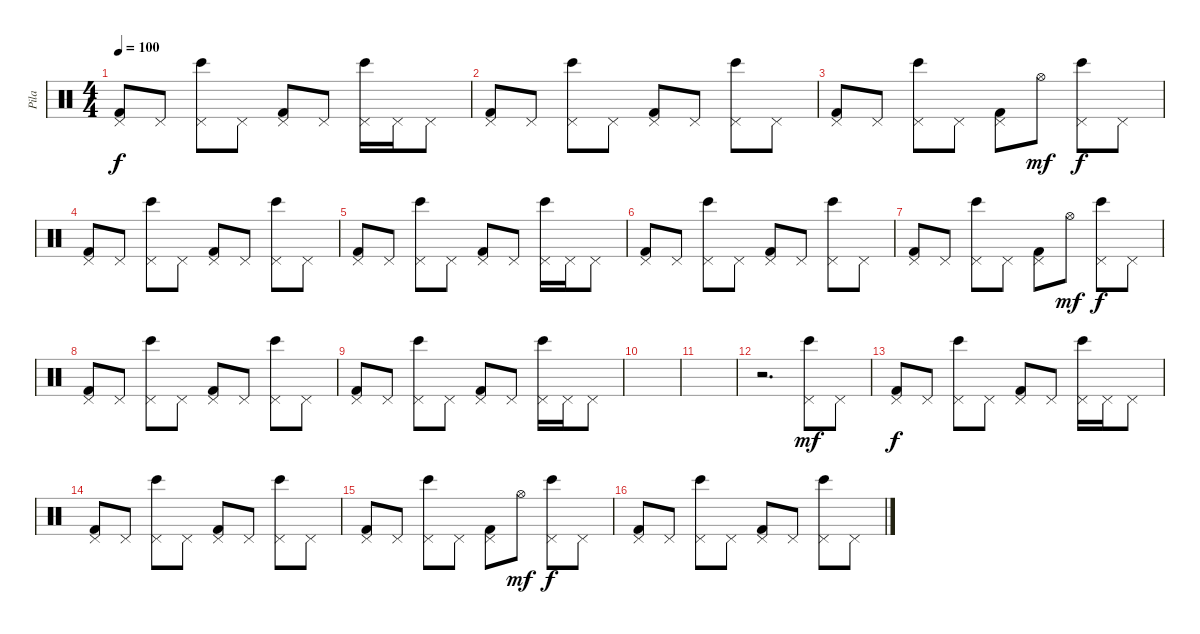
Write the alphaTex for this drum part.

\track ("Pila" "Pila") {instrument percussion}
\staff {score}
\articulation defaults
\ts (4 4)
\tempo 100
\clef neutral
\ks c
("Pedal Hi-Hat (hit)" "Kick (hit) 2").8{dy f} "Pedal Hi-Hat (hit)".8 ("Pedal Hi-Hat (hit)" "Bongo High (hit)").8 "Pedal Hi-Hat (hit)".8 ("Pedal Hi-Hat (hit)" "Kick (hit) 2").8 "Pedal Hi-Hat (hit)".8 ("Pedal Hi-Hat (hit)" "Bongo High (hit)").16 "Pedal Hi-Hat (hit)".16 "Pedal Hi-Hat (hit)".8 |
("Pedal Hi-Hat (hit)" "Kick (hit) 2").8 "Pedal Hi-Hat (hit)".8 ("Pedal Hi-Hat (hit)" "Bongo High (hit)").8 "Pedal Hi-Hat (hit)".8 ("Pedal Hi-Hat (hit)" "Kick (hit) 2").8 "Pedal Hi-Hat (hit)".8 ("Pedal Hi-Hat (hit)" "Bongo High (hit)").8 "Pedal Hi-Hat (hit)".8 |
("Pedal Hi-Hat (hit)" "Kick (hit) 2").8 "Pedal Hi-Hat (hit)".8 ("Pedal Hi-Hat (hit)" "Bongo High (hit)").8 "Pedal Hi-Hat (hit)".8 ("Pedal Hi-Hat (hit)" "Kick (hit) 2").8 "Hi-Hat (open)".8{dy mf} ("Pedal Hi-Hat (hit)" "Bongo High (hit)").8{dy f} "Pedal Hi-Hat (hit)".8 |
("Pedal Hi-Hat (hit)" "Kick (hit) 2").8 "Pedal Hi-Hat (hit)".8 ("Pedal Hi-Hat (hit)" "Bongo High (hit)").8 "Pedal Hi-Hat (hit)".8 ("Pedal Hi-Hat (hit)" "Kick (hit) 2").8 "Pedal Hi-Hat (hit)".8 ("Pedal Hi-Hat (hit)" "Bongo High (hit)").8 "Pedal Hi-Hat (hit)".8 |
("Pedal Hi-Hat (hit)" "Kick (hit) 2").8 "Pedal Hi-Hat (hit)".8 ("Pedal Hi-Hat (hit)" "Bongo High (hit)").8 "Pedal Hi-Hat (hit)".8 ("Pedal Hi-Hat (hit)" "Kick (hit) 2").8 "Pedal Hi-Hat (hit)".8 ("Pedal Hi-Hat (hit)" "Bongo High (hit)").16 "Pedal Hi-Hat (hit)".16 "Pedal Hi-Hat (hit)".8 |
("Pedal Hi-Hat (hit)" "Kick (hit) 2").8 "Pedal Hi-Hat (hit)".8 ("Pedal Hi-Hat (hit)" "Bongo High (hit)").8 "Pedal Hi-Hat (hit)".8 ("Pedal Hi-Hat (hit)" "Kick (hit) 2").8 "Pedal Hi-Hat (hit)".8 ("Pedal Hi-Hat (hit)" "Bongo High (hit)").8 "Pedal Hi-Hat (hit)".8 |
("Pedal Hi-Hat (hit)" "Kick (hit) 2").8 "Pedal Hi-Hat (hit)".8 ("Pedal Hi-Hat (hit)" "Bongo High (hit)").8 "Pedal Hi-Hat (hit)".8 ("Pedal Hi-Hat (hit)" "Kick (hit) 2").8 "Hi-Hat (open)".8{dy mf} ("Pedal Hi-Hat (hit)" "Bongo High (hit)").8{dy f} "Pedal Hi-Hat (hit)".8 |
("Pedal Hi-Hat (hit)" "Kick (hit) 2").8 "Pedal Hi-Hat (hit)".8 ("Pedal Hi-Hat (hit)" "Bongo High (hit)").8 "Pedal Hi-Hat (hit)".8 ("Pedal Hi-Hat (hit)" "Kick (hit) 2").8 "Pedal Hi-Hat (hit)".8 ("Pedal Hi-Hat (hit)" "Bongo High (hit)").8 "Pedal Hi-Hat (hit)".8 |
("Pedal Hi-Hat (hit)" "Kick (hit) 2").8 "Pedal Hi-Hat (hit)".8 ("Pedal Hi-Hat (hit)" "Bongo High (hit)").8 "Pedal Hi-Hat (hit)".8 ("Pedal Hi-Hat (hit)" "Kick (hit) 2").8 "Pedal Hi-Hat (hit)".8 ("Pedal Hi-Hat (hit)" "Bongo High (hit)").16 "Pedal Hi-Hat (hit)".16 "Pedal Hi-Hat (hit)".8 |
|
|
r.2{d} ("Pedal Hi-Hat (hit)" "Bongo High (hit)").8{dy mf} "Pedal Hi-Hat (hit)".8 |
("Pedal Hi-Hat (hit)" "Kick (hit) 2").8{dy f} "Pedal Hi-Hat (hit)".8 ("Pedal Hi-Hat (hit)" "Bongo High (hit)").8 "Pedal Hi-Hat (hit)".8 ("Pedal Hi-Hat (hit)" "Kick (hit) 2").8 "Pedal Hi-Hat (hit)".8 ("Pedal Hi-Hat (hit)" "Bongo High (hit)").16 "Pedal Hi-Hat (hit)".16 "Pedal Hi-Hat (hit)".8 |
("Pedal Hi-Hat (hit)" "Kick (hit) 2").8 "Pedal Hi-Hat (hit)".8 ("Pedal Hi-Hat (hit)" "Bongo High (hit)").8 "Pedal Hi-Hat (hit)".8 ("Pedal Hi-Hat (hit)" "Kick (hit) 2").8 "Pedal Hi-Hat (hit)".8 ("Pedal Hi-Hat (hit)" "Bongo High (hit)").8 "Pedal Hi-Hat (hit)".8 |
("Pedal Hi-Hat (hit)" "Kick (hit) 2").8 "Pedal Hi-Hat (hit)".8 ("Pedal Hi-Hat (hit)" "Bongo High (hit)").8 "Pedal Hi-Hat (hit)".8 ("Pedal Hi-Hat (hit)" "Kick (hit) 2").8 "Hi-Hat (open)".8{dy mf} ("Pedal Hi-Hat (hit)" "Bongo High (hit)").8{dy f} "Pedal Hi-Hat (hit)".8 |
("Pedal Hi-Hat (hit)" "Kick (hit) 2").8 "Pedal Hi-Hat (hit)".8 ("Pedal Hi-Hat (hit)" "Bongo High (hit)").8 "Pedal Hi-Hat (hit)".8 ("Pedal Hi-Hat (hit)" "Kick (hit) 2").8 "Pedal Hi-Hat (hit)".8 ("Pedal Hi-Hat (hit)" "Bongo High (hit)").8 "Pedal Hi-Hat (hit)".8
